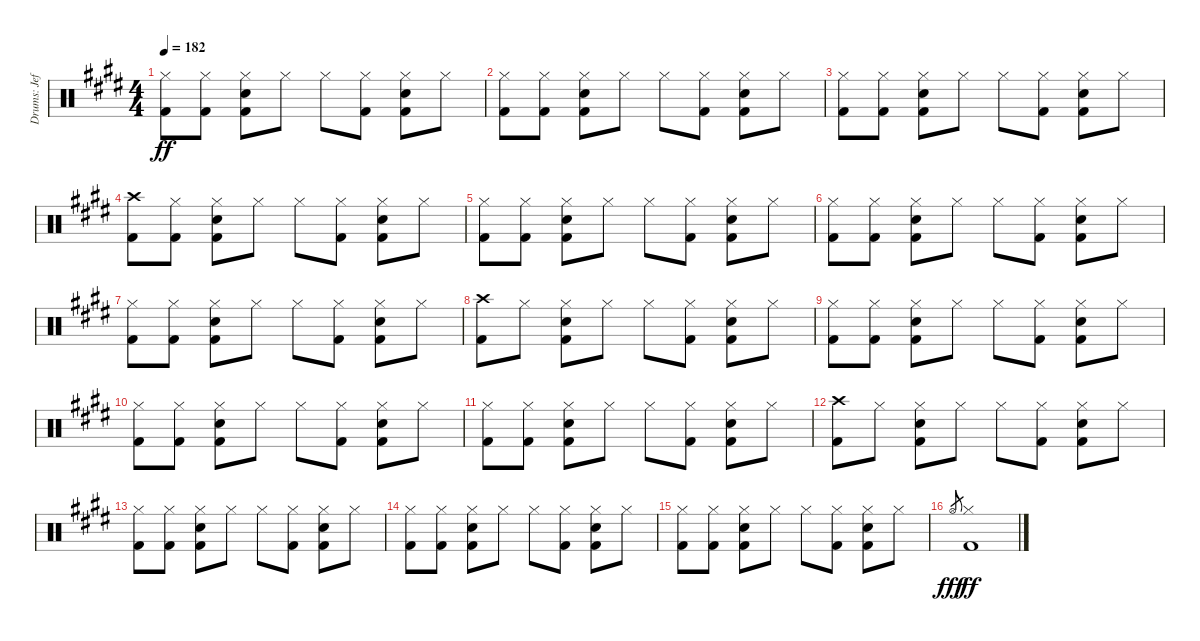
\track ("Drums: Jeff" "Drums: Jef") {instrument percussion}
\staff {score}
\articulation defaults
\ts (4 4)
\tempo 182
\clef neutral
\ks e
("Hi-Hat (closed)" "Kick (hit) 2").8{dy ff} ("Hi-Hat (closed)" "Kick (hit) 2").8 ("Hi-Hat (closed)" "Electric Snare (hit)" "Kick (hit) 2").8 "Hi-Hat (closed)".8 "Hi-Hat (closed)".8 ("Hi-Hat (closed)" "Kick (hit) 2").8 ("Hi-Hat (closed)" "Electric Snare (hit)" "Kick (hit) 2").8 "Hi-Hat (closed)".8 |
("Hi-Hat (closed)" "Kick (hit) 2").8 ("Hi-Hat (closed)" "Kick (hit) 2").8 ("Hi-Hat (closed)" "Electric Snare (hit)" "Kick (hit) 2").8 "Hi-Hat (closed)".8 "Hi-Hat (closed)".8 ("Hi-Hat (closed)" "Kick (hit) 2").8 ("Hi-Hat (closed)" "Electric Snare (hit)" "Kick (hit) 2").8 "Hi-Hat (closed)".8 |
("Hi-Hat (closed)" "Kick (hit) 2").8 ("Hi-Hat (closed)" "Kick (hit) 2").8 ("Hi-Hat (closed)" "Electric Snare (hit)" "Kick (hit) 2").8 "Hi-Hat (closed)".8 "Hi-Hat (closed)".8 ("Hi-Hat (closed)" "Kick (hit) 2").8 ("Hi-Hat (closed)" "Electric Snare (hit)" "Kick (hit) 2").8 "Hi-Hat (closed)".8 |
("Crash high (hit)" "Kick (hit) 2").8 ("Hi-Hat (closed)" "Kick (hit) 2").8 ("Hi-Hat (closed)" "Electric Snare (hit)" "Kick (hit) 2").8 "Hi-Hat (closed)".8 "Hi-Hat (closed)".8 ("Hi-Hat (closed)" "Kick (hit) 2").8 ("Hi-Hat (closed)" "Electric Snare (hit)" "Kick (hit) 2").8 "Hi-Hat (closed)".8 |
("Hi-Hat (closed)" "Kick (hit) 2").8 ("Hi-Hat (closed)" "Kick (hit) 2").8 ("Hi-Hat (closed)" "Electric Snare (hit)" "Kick (hit) 2").8 "Hi-Hat (closed)".8 "Hi-Hat (closed)".8 ("Hi-Hat (closed)" "Kick (hit) 2").8 ("Hi-Hat (closed)" "Electric Snare (hit)" "Kick (hit) 2").8 "Hi-Hat (closed)".8 |
("Hi-Hat (closed)" "Kick (hit) 2").8 ("Hi-Hat (closed)" "Kick (hit) 2").8 ("Hi-Hat (closed)" "Electric Snare (hit)" "Kick (hit) 2").8 "Hi-Hat (closed)".8 "Hi-Hat (closed)".8 ("Hi-Hat (closed)" "Kick (hit) 2").8 ("Hi-Hat (closed)" "Electric Snare (hit)" "Kick (hit) 2").8 "Hi-Hat (closed)".8 |
("Hi-Hat (closed)" "Kick (hit) 2").8 ("Hi-Hat (closed)" "Kick (hit) 2").8 ("Hi-Hat (closed)" "Electric Snare (hit)" "Kick (hit) 2").8 "Hi-Hat (closed)".8 "Hi-Hat (closed)".8 ("Hi-Hat (closed)" "Kick (hit) 2").8 ("Hi-Hat (closed)" "Electric Snare (hit)" "Kick (hit) 2").8 "Hi-Hat (closed)".8 |
("Crash high (hit)" "Kick (hit) 2").8 "Hi-Hat (closed)".8 ("Hi-Hat (closed)" "Electric Snare (hit)" "Kick (hit) 2").8 "Hi-Hat (closed)".8 "Hi-Hat (closed)".8 ("Hi-Hat (closed)" "Kick (hit) 2").8 ("Hi-Hat (closed)" "Electric Snare (hit)" "Kick (hit) 2").8 "Hi-Hat (closed)".8 |
("Hi-Hat (closed)" "Kick (hit) 2").8 ("Hi-Hat (closed)" "Kick (hit) 2").8 ("Hi-Hat (closed)" "Electric Snare (hit)" "Kick (hit) 2").8 "Hi-Hat (closed)".8 "Hi-Hat (closed)".8 ("Hi-Hat (closed)" "Kick (hit) 2").8 ("Hi-Hat (closed)" "Electric Snare (hit)" "Kick (hit) 2").8 "Hi-Hat (closed)".8 |
("Hi-Hat (closed)" "Kick (hit) 2").8 ("Hi-Hat (closed)" "Kick (hit) 2").8 ("Hi-Hat (closed)" "Electric Snare (hit)" "Kick (hit) 2").8 "Hi-Hat (closed)".8 "Hi-Hat (closed)".8 ("Hi-Hat (closed)" "Kick (hit) 2").8 ("Hi-Hat (closed)" "Electric Snare (hit)" "Kick (hit) 2").8 "Hi-Hat (closed)".8 |
("Hi-Hat (closed)" "Kick (hit) 2").8 ("Hi-Hat (closed)" "Kick (hit) 2").8 ("Hi-Hat (closed)" "Electric Snare (hit)" "Kick (hit) 2").8 "Hi-Hat (closed)".8 "Hi-Hat (closed)".8 ("Hi-Hat (closed)" "Kick (hit) 2").8 ("Hi-Hat (closed)" "Electric Snare (hit)" "Kick (hit) 2").8 "Hi-Hat (closed)".8 |
("Crash high (hit)" "Kick (hit) 2").8 "Hi-Hat (closed)".8 ("Hi-Hat (closed)" "Electric Snare (hit)" "Kick (hit) 2").8 "Hi-Hat (closed)".8 "Hi-Hat (closed)".8 ("Hi-Hat (closed)" "Kick (hit) 2").8 ("Hi-Hat (closed)" "Electric Snare (hit)" "Kick (hit) 2").8 "Hi-Hat (closed)".8 |
("Hi-Hat (closed)" "Kick (hit) 2").8 ("Hi-Hat (closed)" "Kick (hit) 2").8 ("Hi-Hat (closed)" "Electric Snare (hit)" "Kick (hit) 2").8 "Hi-Hat (closed)".8 "Hi-Hat (closed)".8 ("Hi-Hat (closed)" "Kick (hit) 2").8 ("Hi-Hat (closed)" "Electric Snare (hit)" "Kick (hit) 2").8 "Hi-Hat (closed)".8 |
("Hi-Hat (closed)" "Kick (hit) 2").8 ("Hi-Hat (closed)" "Kick (hit) 2").8 ("Hi-Hat (closed)" "Electric Snare (hit)" "Kick (hit) 2").8 "Hi-Hat (closed)".8 "Hi-Hat (closed)".8 ("Hi-Hat (closed)" "Kick (hit) 2").8 ("Hi-Hat (closed)" "Electric Snare (hit)" "Kick (hit) 2").8 "Hi-Hat (closed)".8 |
("Hi-Hat (closed)" "Kick (hit) 2").8 ("Hi-Hat (closed)" "Kick (hit) 2").8 ("Hi-Hat (closed)" "Electric Snare (hit)" "Kick (hit) 2").8 "Hi-Hat (closed)".8 "Hi-Hat (closed)".8 ("Hi-Hat (closed)" "Kick (hit) 2").8 ("Hi-Hat (closed)" "Electric Snare (hit)" "Kick (hit) 2").8 "Hi-Hat (closed)".8 |
"Hi-Hat (open)".8{gr dy fff} ("Hi-Hat (closed)" "Kick (hit) 2").1{dy ff}
